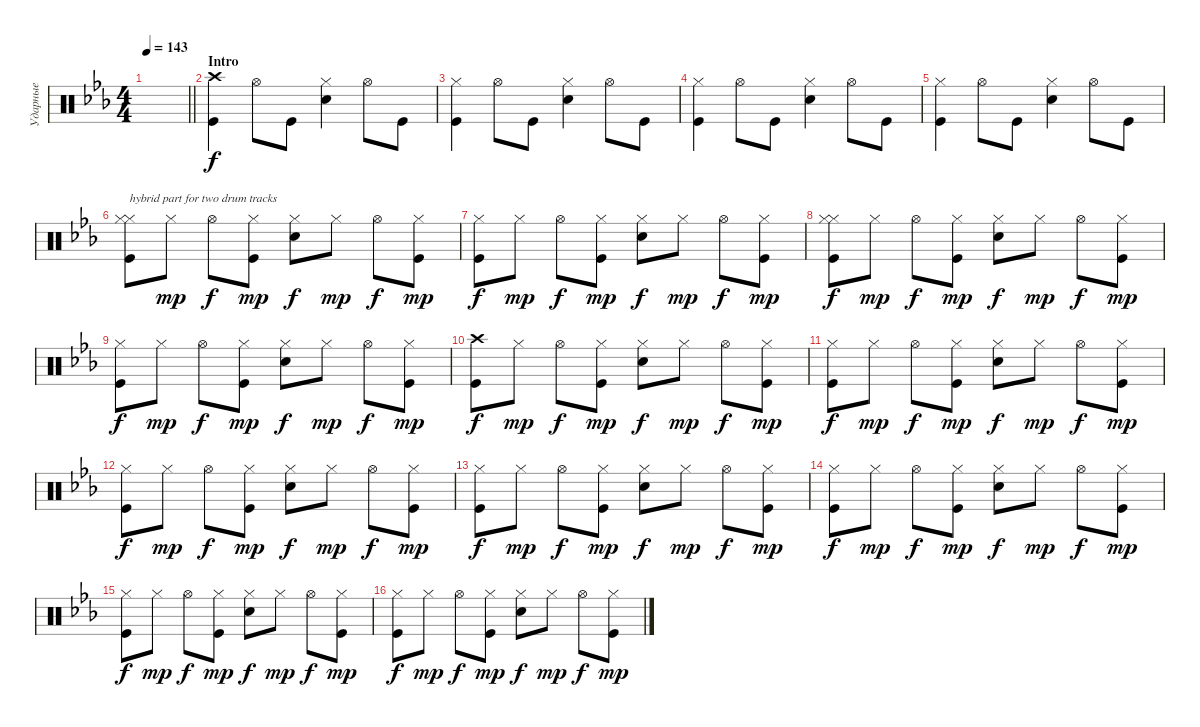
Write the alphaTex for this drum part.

\track ("Ударные" "Ударные") {instrument percussion}
\staff {score}
\articulation defaults
\ts (4 4)
\tempo 143
\clef neutral
\barLineRight lightlight
\ks cminor
|
\section ("" "Intro")
("Kick (hit)" "Crash high (hit)").4 "Hi-Hat (open)".8 "Kick (hit)".8 ("Snare (hit) 2" "Hi-Hat (closed)").4 "Hi-Hat (open)".8 "Kick (hit)".8 |
("Kick (hit)" "Hi-Hat (closed)").4 "Hi-Hat (open)".8 "Kick (hit)".8 ("Snare (hit) 2" "Hi-Hat (closed)").4 "Hi-Hat (open)".8 "Kick (hit)".8 |
("Kick (hit)" "Hi-Hat (closed)").4 "Hi-Hat (open)".8 "Kick (hit)".8 ("Snare (hit) 2" "Hi-Hat (closed)").4 "Hi-Hat (open)".8 "Kick (hit)".8 |
("Kick (hit)" "Hi-Hat (closed)").4 "Hi-Hat (open)".8 "Kick (hit)".8 ("Snare (hit) 2" "Hi-Hat (closed)").4 "Hi-Hat (open)".8 "Kick (hit)".8 |
("Kick (hit)" "Hi-Hat (closed)" "Hi-Hat (closed)").8{txt "hybrid part for two drum tracks"} "Hi-Hat (closed)".8{dy mp} "Hi-Hat (open)".8{dy f} ("Kick (hit)" "Hi-Hat (closed)").8{dy mp} ("Snare (hit) 2" "Hi-Hat (closed)").8{dy f} "Hi-Hat (closed)".8{dy mp} "Hi-Hat (open)".8{dy f} ("Kick (hit)" "Hi-Hat (closed)").8{dy mp} |
("Kick (hit)" "Hi-Hat (closed)").8{dy f} "Hi-Hat (closed)".8{dy mp} "Hi-Hat (open)".8{dy f} ("Kick (hit)" "Hi-Hat (closed)").8{dy mp} ("Snare (hit) 2" "Hi-Hat (closed)").8{dy f} "Hi-Hat (closed)".8{dy mp} "Hi-Hat (open)".8{dy f} ("Kick (hit)" "Hi-Hat (closed)").8{dy mp} |
("Kick (hit)" "Hi-Hat (closed)" "Hi-Hat (closed)").8{dy f} "Hi-Hat (closed)".8{dy mp} "Hi-Hat (open)".8{dy f} ("Kick (hit)" "Hi-Hat (closed)").8{dy mp} ("Snare (hit) 2" "Hi-Hat (closed)").8{dy f} "Hi-Hat (closed)".8{dy mp} "Hi-Hat (open)".8{dy f} ("Kick (hit)" "Hi-Hat (closed)").8{dy mp} |
("Kick (hit)" "Hi-Hat (closed)").8{dy f} "Hi-Hat (closed)".8{dy mp} "Hi-Hat (open)".8{dy f} ("Kick (hit)" "Hi-Hat (closed)").8{dy mp} ("Snare (hit) 2" "Hi-Hat (closed)").8{dy f} "Hi-Hat (closed)".8{dy mp} "Hi-Hat (open)".8{dy f} ("Kick (hit)" "Hi-Hat (closed)").8{dy mp} |
("Kick (hit)" "Crash high (hit)").8{dy f} "Hi-Hat (closed)".8{dy mp} "Hi-Hat (open)".8{dy f} ("Kick (hit)" "Hi-Hat (closed)").8{dy mp} ("Snare (hit) 2" "Hi-Hat (closed)").8{dy f} "Hi-Hat (closed)".8{dy mp} "Hi-Hat (open)".8{dy f} ("Kick (hit)" "Hi-Hat (closed)").8{dy mp} |
("Kick (hit)" "Hi-Hat (closed)").8{dy f} "Hi-Hat (closed)".8{dy mp} "Hi-Hat (open)".8{dy f} ("Kick (hit)" "Hi-Hat (closed)").8{dy mp} ("Snare (hit) 2" "Hi-Hat (closed)").8{dy f} "Hi-Hat (closed)".8{dy mp} "Hi-Hat (open)".8{dy f} ("Kick (hit)" "Hi-Hat (closed)").8{dy mp} |
("Kick (hit)" "Hi-Hat (closed)").8{dy f} "Hi-Hat (closed)".8{dy mp} "Hi-Hat (open)".8{dy f} ("Kick (hit)" "Hi-Hat (closed)").8{dy mp} ("Snare (hit) 2" "Hi-Hat (closed)").8{dy f} "Hi-Hat (closed)".8{dy mp} "Hi-Hat (open)".8{dy f} ("Kick (hit)" "Hi-Hat (closed)").8{dy mp} |
("Kick (hit)" "Hi-Hat (closed)").8{dy f} "Hi-Hat (closed)".8{dy mp} "Hi-Hat (open)".8{dy f} ("Kick (hit)" "Hi-Hat (closed)").8{dy mp} ("Snare (hit) 2" "Hi-Hat (closed)").8{dy f} "Hi-Hat (closed)".8{dy mp} "Hi-Hat (open)".8{dy f} ("Kick (hit)" "Hi-Hat (closed)").8{dy mp} |
("Kick (hit)" "Hi-Hat (closed)").8{dy f} "Hi-Hat (closed)".8{dy mp} "Hi-Hat (open)".8{dy f} ("Kick (hit)" "Hi-Hat (closed)").8{dy mp} ("Snare (hit) 2" "Hi-Hat (closed)").8{dy f} "Hi-Hat (closed)".8{dy mp} "Hi-Hat (open)".8{dy f} ("Kick (hit)" "Hi-Hat (closed)").8{dy mp} |
("Kick (hit)" "Hi-Hat (closed)").8{dy f} "Hi-Hat (closed)".8{dy mp} "Hi-Hat (open)".8{dy f} ("Kick (hit)" "Hi-Hat (closed)").8{dy mp} ("Snare (hit) 2" "Hi-Hat (closed)").8{dy f} "Hi-Hat (closed)".8{dy mp} "Hi-Hat (open)".8{dy f} ("Kick (hit)" "Hi-Hat (closed)").8{dy mp} |
("Kick (hit)" "Hi-Hat (closed)").8{dy f} "Hi-Hat (closed)".8{dy mp} "Hi-Hat (open)".8{dy f} ("Kick (hit)" "Hi-Hat (closed)").8{dy mp} ("Snare (hit) 2" "Hi-Hat (closed)").8{dy f} "Hi-Hat (closed)".8{dy mp} "Hi-Hat (open)".8{dy f} ("Kick (hit)" "Hi-Hat (closed)").8{dy mp}
